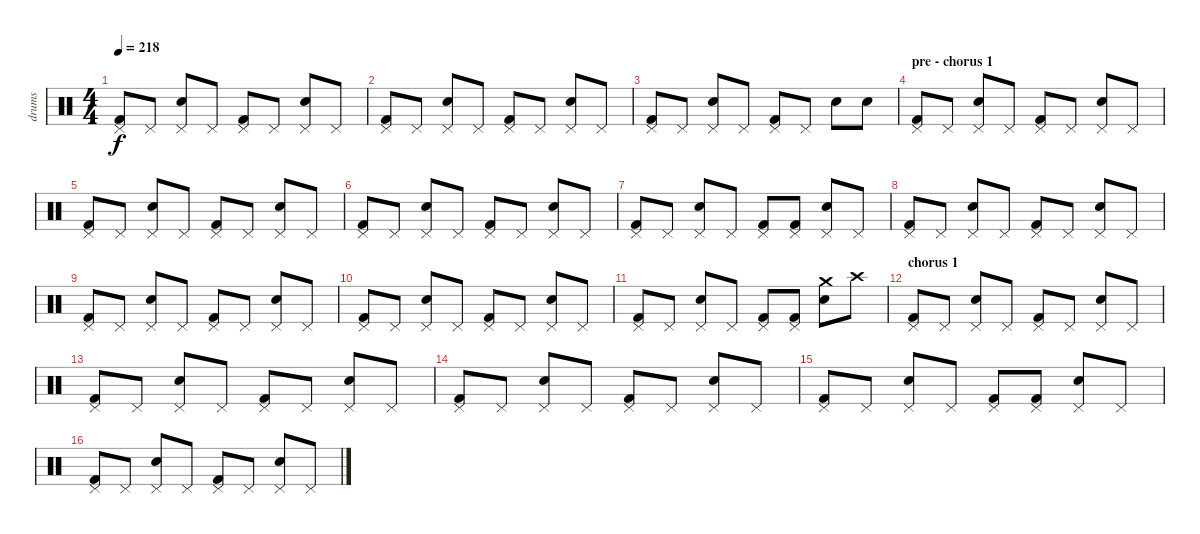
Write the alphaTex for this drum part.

\track ("drums" "drums") {instrument percussion}
\staff {score}
\articulation defaults
\ts (4 4)
\tempo 218
\clef neutral
\ks c
("Kick (hit) 2" "Pedal Hi-Hat (hit)").8{dy f} "Pedal Hi-Hat (hit)".8 ("Snare (hit) 2" "Pedal Hi-Hat (hit)").8 "Pedal Hi-Hat (hit)".8 ("Kick (hit) 2" "Pedal Hi-Hat (hit)").8 "Pedal Hi-Hat (hit)".8 ("Snare (hit) 2" "Pedal Hi-Hat (hit)").8 "Pedal Hi-Hat (hit)".8 |
("Kick (hit) 2" "Pedal Hi-Hat (hit)").8 "Pedal Hi-Hat (hit)".8 ("Snare (hit) 2" "Pedal Hi-Hat (hit)").8 "Pedal Hi-Hat (hit)".8 ("Kick (hit) 2" "Pedal Hi-Hat (hit)").8 "Pedal Hi-Hat (hit)".8 ("Snare (hit) 2" "Pedal Hi-Hat (hit)").8 "Pedal Hi-Hat (hit)".8 |
("Kick (hit) 2" "Pedal Hi-Hat (hit)").8 "Pedal Hi-Hat (hit)".8 ("Snare (hit) 2" "Pedal Hi-Hat (hit)").8 "Pedal Hi-Hat (hit)".8 ("Kick (hit) 2" "Pedal Hi-Hat (hit)").8 "Pedal Hi-Hat (hit)".8 "Snare (hit) 2"{tr (38 16)}.8 "Snare (hit) 2"{tr (38 16)}.8 |
\section ("" "pre - chorus 1")
("Kick (hit) 2" "Pedal Hi-Hat (hit)").8 "Pedal Hi-Hat (hit)".8 ("Snare (hit) 2" "Pedal Hi-Hat (hit)").8 "Pedal Hi-Hat (hit)".8 ("Kick (hit) 2" "Pedal Hi-Hat (hit)").8 "Pedal Hi-Hat (hit)".8 ("Snare (hit) 2" "Pedal Hi-Hat (hit)").8 "Pedal Hi-Hat (hit)".8 |
("Kick (hit) 2" "Pedal Hi-Hat (hit)").8 "Pedal Hi-Hat (hit)".8 ("Snare (hit) 2" "Pedal Hi-Hat (hit)").8 "Pedal Hi-Hat (hit)".8 ("Kick (hit) 2" "Pedal Hi-Hat (hit)").8 "Pedal Hi-Hat (hit)".8 ("Snare (hit) 2" "Pedal Hi-Hat (hit)").8 "Pedal Hi-Hat (hit)".8 |
("Kick (hit) 2" "Pedal Hi-Hat (hit)").8 "Pedal Hi-Hat (hit)".8 ("Snare (hit) 2" "Pedal Hi-Hat (hit)").8 "Pedal Hi-Hat (hit)".8 ("Kick (hit) 2" "Pedal Hi-Hat (hit)").8 "Pedal Hi-Hat (hit)".8 ("Snare (hit) 2" "Pedal Hi-Hat (hit)").8 "Pedal Hi-Hat (hit)".8 |
("Kick (hit) 2" "Pedal Hi-Hat (hit)").8 "Pedal Hi-Hat (hit)".8 ("Snare (hit) 2" "Pedal Hi-Hat (hit)").8 "Pedal Hi-Hat (hit)".8 ("Kick (hit) 2" "Pedal Hi-Hat (hit)").8 ("Kick (hit) 2" "Pedal Hi-Hat (hit)").8 ("Snare (hit) 2" "Pedal Hi-Hat (hit)").8 "Pedal Hi-Hat (hit)".8 |
("Kick (hit) 2" "Pedal Hi-Hat (hit)").8 "Pedal Hi-Hat (hit)".8 ("Snare (hit) 2" "Pedal Hi-Hat (hit)").8 "Pedal Hi-Hat (hit)".8 ("Kick (hit) 2" "Pedal Hi-Hat (hit)").8 "Pedal Hi-Hat (hit)".8 ("Snare (hit) 2" "Pedal Hi-Hat (hit)").8 "Pedal Hi-Hat (hit)".8 |
("Kick (hit) 2" "Pedal Hi-Hat (hit)").8 "Pedal Hi-Hat (hit)".8 ("Snare (hit) 2" "Pedal Hi-Hat (hit)").8 "Pedal Hi-Hat (hit)".8 ("Kick (hit) 2" "Pedal Hi-Hat (hit)").8 "Pedal Hi-Hat (hit)".8 ("Snare (hit) 2" "Pedal Hi-Hat (hit)").8 "Pedal Hi-Hat (hit)".8 |
("Kick (hit) 2" "Pedal Hi-Hat (hit)").8 "Pedal Hi-Hat (hit)".8 ("Snare (hit) 2" "Pedal Hi-Hat (hit)").8 "Pedal Hi-Hat (hit)".8 ("Kick (hit) 2" "Pedal Hi-Hat (hit)").8 "Pedal Hi-Hat (hit)".8 ("Snare (hit) 2" "Pedal Hi-Hat (hit)").8 "Pedal Hi-Hat (hit)".8 |
("Kick (hit) 2" "Pedal Hi-Hat (hit)").8 "Pedal Hi-Hat (hit)".8 ("Snare (hit) 2" "Pedal Hi-Hat (hit)").8 "Pedal Hi-Hat (hit)".8 ("Kick (hit) 2" "Pedal Hi-Hat (hit)").8 ("Kick (hit) 2" "Pedal Hi-Hat (hit)").8 ("Snare (hit) 2" "Crash medium (hit)").8 "Crash high (hit)".8 |
\section ("" "chorus 1")
("Kick (hit) 2" "Pedal Hi-Hat (hit)").8 "Pedal Hi-Hat (hit)".8 ("Snare (hit) 2" "Pedal Hi-Hat (hit)").8 "Pedal Hi-Hat (hit)".8 ("Kick (hit) 2" "Pedal Hi-Hat (hit)").8 "Pedal Hi-Hat (hit)".8 ("Snare (hit) 2" "Pedal Hi-Hat (hit)").8 "Pedal Hi-Hat (hit)".8 |
("Kick (hit) 2" "Pedal Hi-Hat (hit)").8 "Pedal Hi-Hat (hit)".8 ("Snare (hit) 2" "Pedal Hi-Hat (hit)").8 "Pedal Hi-Hat (hit)".8 ("Kick (hit) 2" "Pedal Hi-Hat (hit)").8 "Pedal Hi-Hat (hit)".8 ("Snare (hit) 2" "Pedal Hi-Hat (hit)").8 "Pedal Hi-Hat (hit)".8 |
("Kick (hit) 2" "Pedal Hi-Hat (hit)").8 "Pedal Hi-Hat (hit)".8 ("Snare (hit) 2" "Pedal Hi-Hat (hit)").8 "Pedal Hi-Hat (hit)".8 ("Kick (hit) 2" "Pedal Hi-Hat (hit)").8 "Pedal Hi-Hat (hit)".8 ("Snare (hit) 2" "Pedal Hi-Hat (hit)").8 "Pedal Hi-Hat (hit)".8 |
("Kick (hit) 2" "Pedal Hi-Hat (hit)").8 "Pedal Hi-Hat (hit)".8 ("Snare (hit) 2" "Pedal Hi-Hat (hit)").8 "Pedal Hi-Hat (hit)".8 ("Kick (hit) 2" "Pedal Hi-Hat (hit)").8 ("Kick (hit) 2" "Pedal Hi-Hat (hit)").8 ("Snare (hit) 2" "Pedal Hi-Hat (hit)").8 "Pedal Hi-Hat (hit)".8 |
("Kick (hit) 2" "Pedal Hi-Hat (hit)").8 "Pedal Hi-Hat (hit)".8 ("Snare (hit) 2" "Pedal Hi-Hat (hit)").8 "Pedal Hi-Hat (hit)".8 ("Kick (hit) 2" "Pedal Hi-Hat (hit)").8 "Pedal Hi-Hat (hit)".8 ("Snare (hit) 2" "Pedal Hi-Hat (hit)").8 "Pedal Hi-Hat (hit)".8
